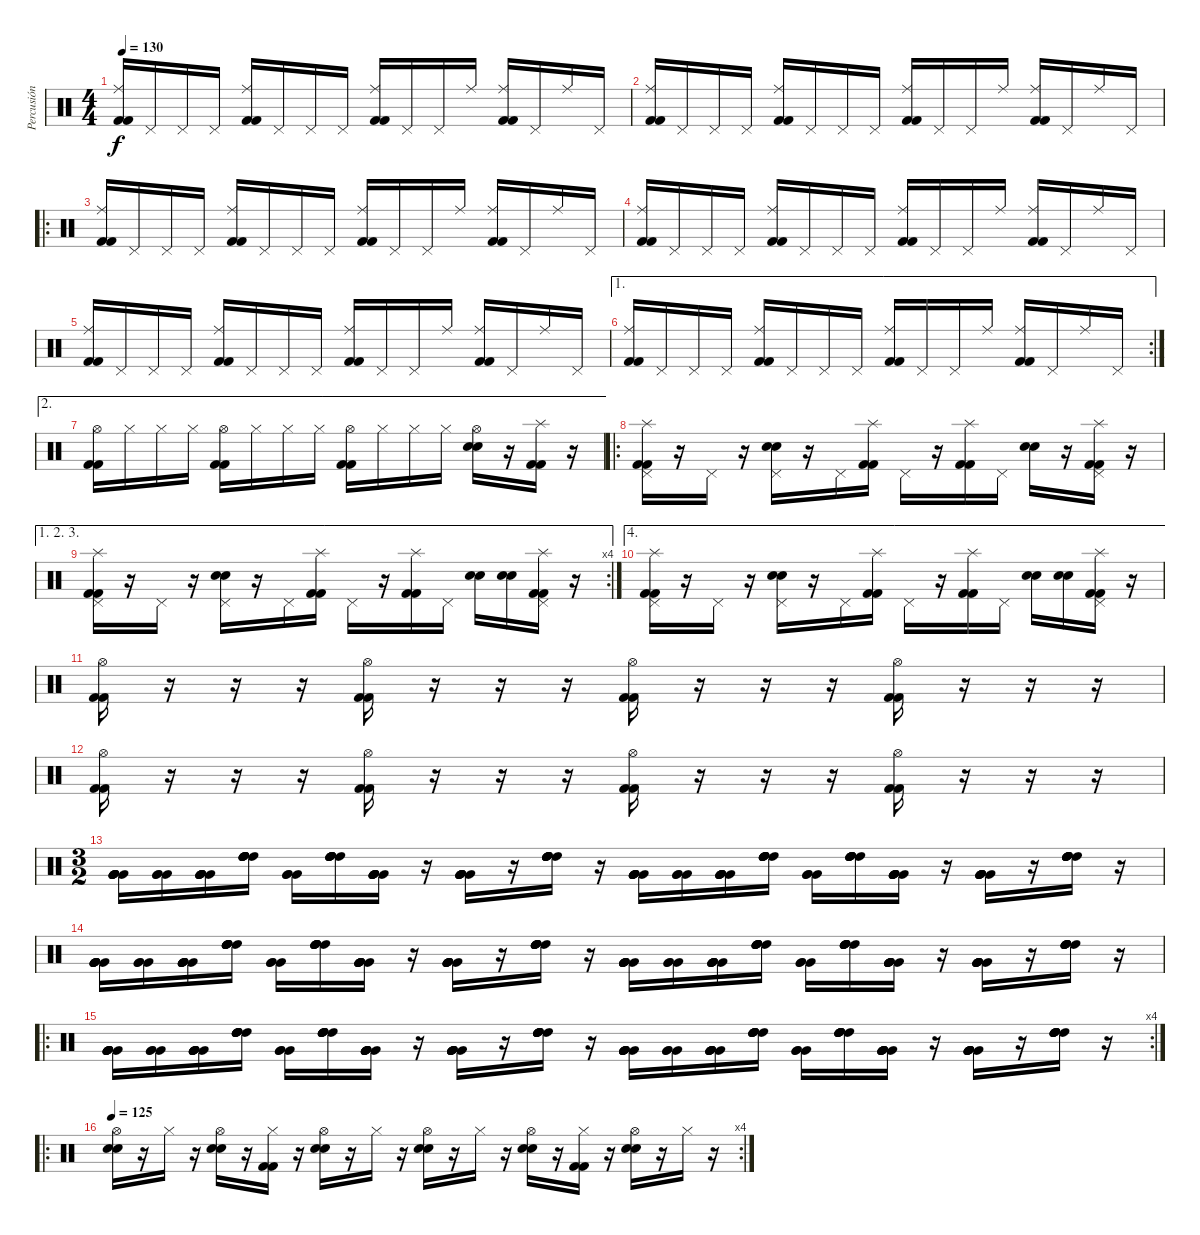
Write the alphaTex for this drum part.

\track ("Percusión" "Percusión") {instrument percussion}
\staff {score}
\articulation defaults
\ts (4 4)
\tempo 130
\clef neutral
\ks c
("Ride (middle)" "Kick (hit) 2" "Kick (hit) 2").16{dy f} "Pedal Hi-Hat (hit)".16 "Pedal Hi-Hat (hit)".16 "Pedal Hi-Hat (hit)".16 ("Ride (middle)" "Kick (hit) 2" "Kick (hit) 2").16 "Pedal Hi-Hat (hit)".16 "Pedal Hi-Hat (hit)".16 "Pedal Hi-Hat (hit)".16 ("Ride (middle)" "Kick (hit) 2" "Kick (hit) 2").16 "Pedal Hi-Hat (hit)".16 "Pedal Hi-Hat (hit)".16 "Ride (middle)".16 ("Ride (middle)" "Kick (hit) 2" "Kick (hit) 2").16 "Pedal Hi-Hat (hit)".16 "Ride (middle)".16 "Pedal Hi-Hat (hit)".16 |
("Ride (middle)" "Kick (hit) 2" "Kick (hit) 2").16 "Pedal Hi-Hat (hit)".16 "Pedal Hi-Hat (hit)".16 "Pedal Hi-Hat (hit)".16 ("Ride (middle)" "Kick (hit) 2" "Kick (hit) 2").16 "Pedal Hi-Hat (hit)".16 "Pedal Hi-Hat (hit)".16 "Pedal Hi-Hat (hit)".16 ("Ride (middle)" "Kick (hit) 2" "Kick (hit) 2").16 "Pedal Hi-Hat (hit)".16 "Pedal Hi-Hat (hit)".16 "Ride (middle)".16 ("Ride (middle)" "Kick (hit) 2" "Kick (hit) 2").16 "Pedal Hi-Hat (hit)".16 "Ride (middle)".16 "Pedal Hi-Hat (hit)".16 |
\ro
("Ride (middle)" "Kick (hit) 2" "Kick (hit) 2").16 "Pedal Hi-Hat (hit)".16 "Pedal Hi-Hat (hit)".16 "Pedal Hi-Hat (hit)".16 ("Ride (middle)" "Kick (hit) 2" "Kick (hit) 2").16 "Pedal Hi-Hat (hit)".16 "Pedal Hi-Hat (hit)".16 "Pedal Hi-Hat (hit)".16 ("Ride (middle)" "Kick (hit) 2" "Kick (hit) 2").16 "Pedal Hi-Hat (hit)".16 "Pedal Hi-Hat (hit)".16 "Ride (middle)".16 ("Ride (middle)" "Kick (hit) 2" "Kick (hit) 2").16 "Pedal Hi-Hat (hit)".16 "Ride (middle)".16 "Pedal Hi-Hat (hit)".16 |
("Ride (middle)" "Kick (hit) 2" "Kick (hit) 2").16 "Pedal Hi-Hat (hit)".16 "Pedal Hi-Hat (hit)".16 "Pedal Hi-Hat (hit)".16 ("Ride (middle)" "Kick (hit) 2" "Kick (hit) 2").16 "Pedal Hi-Hat (hit)".16 "Pedal Hi-Hat (hit)".16 "Pedal Hi-Hat (hit)".16 ("Ride (middle)" "Kick (hit) 2" "Kick (hit) 2").16 "Pedal Hi-Hat (hit)".16 "Pedal Hi-Hat (hit)".16 "Ride (middle)".16 ("Ride (middle)" "Kick (hit) 2" "Kick (hit) 2").16 "Pedal Hi-Hat (hit)".16 "Ride (middle)".16 "Pedal Hi-Hat (hit)".16 |
("Ride (middle)" "Kick (hit) 2" "Kick (hit) 2").16 "Pedal Hi-Hat (hit)".16 "Pedal Hi-Hat (hit)".16 "Pedal Hi-Hat (hit)".16 ("Ride (middle)" "Kick (hit) 2" "Kick (hit) 2").16 "Pedal Hi-Hat (hit)".16 "Pedal Hi-Hat (hit)".16 "Pedal Hi-Hat (hit)".16 ("Ride (middle)" "Kick (hit) 2" "Kick (hit) 2").16 "Pedal Hi-Hat (hit)".16 "Pedal Hi-Hat (hit)".16 "Ride (middle)".16 ("Ride (middle)" "Kick (hit) 2" "Kick (hit) 2").16 "Pedal Hi-Hat (hit)".16 "Ride (middle)".16 "Pedal Hi-Hat (hit)".16 |
\ae 1
\rc 2
("Ride (middle)" "Kick (hit) 2" "Kick (hit) 2").16 "Pedal Hi-Hat (hit)".16 "Pedal Hi-Hat (hit)".16 "Pedal Hi-Hat (hit)".16 ("Ride (middle)" "Kick (hit) 2" "Kick (hit) 2").16 "Pedal Hi-Hat (hit)".16 "Pedal Hi-Hat (hit)".16 "Pedal Hi-Hat (hit)".16 ("Ride (middle)" "Kick (hit) 2" "Kick (hit) 2").16 "Pedal Hi-Hat (hit)".16 "Pedal Hi-Hat (hit)".16 "Ride (middle)".16 ("Ride (middle)" "Kick (hit) 2" "Kick (hit) 2").16 "Pedal Hi-Hat (hit)".16 "Ride (middle)".16 "Pedal Hi-Hat (hit)".16 |
\ae 2
("Hi-Hat (open)" "Kick (hit) 2" "Kick (hit) 2").16 "Hi-Hat (closed)".16 "Hi-Hat (closed)".16 "Hi-Hat (closed)".16 ("Hi-Hat (open)" "Kick (hit) 2" "Kick (hit) 2").16 "Hi-Hat (closed)".16 "Hi-Hat (closed)".16 "Hi-Hat (closed)".16 ("Hi-Hat (open)" "Kick (hit) 2" "Kick (hit) 2").16 "Hi-Hat (closed)".16 "Hi-Hat (closed)".16 "Hi-Hat (closed)".16 ("Hi-Hat (open)" "Electric Snare (hit)" "Electric Snare (hit)").16 r.16 ("Splash (hit)" "Kick (hit) 2" "Kick (hit) 2").16 r.16 |
\ro
("Pedal Hi-Hat (hit)" "Splash (hit)" "Kick (hit) 2" "Kick (hit) 2").16 r.16 "Pedal Hi-Hat (hit)".16 r.16 ("Pedal Hi-Hat (hit)" "Electric Snare (hit)" "Electric Snare (hit)").16 r.16 "Pedal Hi-Hat (hit)".16 ("Splash (hit)" "Kick (hit) 2" "Kick (hit) 2").16 "Pedal Hi-Hat (hit)".16 r.16 ("Splash (hit)" "Kick (hit) 2" "Kick (hit) 2").16 "Pedal Hi-Hat (hit)".16 ("Electric Snare (hit)" "Electric Snare (hit)").16 r.16 ("Pedal Hi-Hat (hit)" "Splash (hit)" "Kick (hit) 2" "Kick (hit) 2").16 r.16 |
\ae (1 2 3)
\rc 4
("Pedal Hi-Hat (hit)" "Splash (hit)" "Kick (hit) 2" "Kick (hit) 2").16 r.16 "Pedal Hi-Hat (hit)".16 r.16 ("Pedal Hi-Hat (hit)" "Electric Snare (hit)" "Electric Snare (hit)").16 r.16 "Pedal Hi-Hat (hit)".16 ("Splash (hit)" "Kick (hit) 2" "Kick (hit) 2").16 "Pedal Hi-Hat (hit)".16 r.16 ("Splash (hit)" "Kick (hit) 2" "Kick (hit) 2").16 "Pedal Hi-Hat (hit)".16 ("Electric Snare (hit)" "Electric Snare (hit)").16 ("Electric Snare (hit)" "Electric Snare (hit)").16 ("Pedal Hi-Hat (hit)" "Splash (hit)" "Kick (hit) 2" "Kick (hit) 2").16 r.16 |
\ae 4
("Pedal Hi-Hat (hit)" "Splash (hit)" "Kick (hit) 2" "Kick (hit) 2").16 r.16 "Pedal Hi-Hat (hit)".16 r.16 ("Pedal Hi-Hat (hit)" "Electric Snare (hit)" "Electric Snare (hit)").16 r.16 "Pedal Hi-Hat (hit)".16 ("Splash (hit)" "Kick (hit) 2" "Kick (hit) 2").16 "Pedal Hi-Hat (hit)".16 r.16 ("Splash (hit)" "Kick (hit) 2" "Kick (hit) 2").16 "Pedal Hi-Hat (hit)".16 ("Electric Snare (hit)" "Electric Snare (hit)").16 ("Electric Snare (hit)" "Electric Snare (hit)").16 ("Pedal Hi-Hat (hit)" "Splash (hit)" "Kick (hit) 2" "Kick (hit) 2").16 r.16 |
("Hi-Hat (open)" "Kick (hit) 2" "Kick (hit) 2").16 r.16 r.16 r.16 ("Hi-Hat (open)" "Kick (hit) 2" "Kick (hit) 2").16 r.16 r.16 r.16 ("Hi-Hat (open)" "Kick (hit) 2" "Kick (hit) 2").16 r.16 r.16 r.16 ("Hi-Hat (open)" "Kick (hit) 2" "Kick (hit) 2").16 r.16 r.16 r.16 |
("Hi-Hat (open)" "Kick (hit) 2" "Kick (hit) 2").16 r.16 r.16 r.16 ("Hi-Hat (open)" "Kick (hit) 2" "Kick (hit) 2").16 r.16 r.16 r.16 ("Hi-Hat (open)" "Kick (hit) 2" "Kick (hit) 2").16 r.16 r.16 r.16 ("Hi-Hat (open)" "Kick (hit) 2" "Kick (hit) 2").16 r.16 r.16 r.16 |
\ts (3 2)
("Very Low Tom (hit)" "Very Low Tom (hit)" "Very Low Tom (hit)" "Very Low Tom (hit)" "Very Low Tom (hit)" "Very Low Tom (hit)").16 ("Very Low Tom (hit)" "Very Low Tom (hit)" "Very Low Tom (hit)").16 ("Very Low Tom (hit)" "Very Low Tom (hit)" "Very Low Tom (hit)" "Very Low Tom (hit)" "Very Low Tom (hit)" "Very Low Tom (hit)").16 ("High Tom (hit)" "High Tom (hit)" "High Tom (hit)" "High Tom (hit)" "High Tom (hit)" "High Tom (hit)").16 ("Very Low Tom (hit)" "Very Low Tom (hit)" "Very Low Tom (hit)").16 ("High Tom (hit)" "High Tom (hit)" "High Tom (hit)" "High Tom (hit)" "High Tom (hit)" "High Tom (hit)").16 ("Very Low Tom (hit)" "Very Low Tom (hit)" "Very Low Tom (hit)" "Very Low Tom (hit)" "Very Low Tom (hit)" "Very Low Tom (hit)").16 r.16 ("Very Low Tom (hit)" "Very Low Tom (hit)" "Very Low Tom (hit)" "Very Low Tom (hit)" "Very Low Tom (hit)" "Very Low Tom (hit)").16 r.16 ("High Tom (hit)" "High Tom (hit)" "High Tom (hit)" "High Tom (hit)" "High Tom (hit)" "High Tom (hit)").16 r.16 ("Very Low Tom (hit)" "Very Low Tom (hit)" "Very Low Tom (hit)" "Very Low Tom (hit)" "Very Low Tom (hit)" "Very Low Tom (hit)").16 ("Very Low Tom (hit)" "Very Low Tom (hit)" "Very Low Tom (hit)").16 ("Very Low Tom (hit)" "Very Low Tom (hit)" "Very Low Tom (hit)" "Very Low Tom (hit)" "Very Low Tom (hit)" "Very Low Tom (hit)").16 ("High Tom (hit)" "High Tom (hit)" "High Tom (hit)" "High Tom (hit)" "High Tom (hit)" "High Tom (hit)").16 ("Very Low Tom (hit)" "Very Low Tom (hit)" "Very Low Tom (hit)").16 ("High Tom (hit)" "High Tom (hit)" "High Tom (hit)" "High Tom (hit)" "High Tom (hit)" "High Tom (hit)").16 ("Very Low Tom (hit)" "Very Low Tom (hit)" "Very Low Tom (hit)" "Very Low Tom (hit)" "Very Low Tom (hit)" "Very Low Tom (hit)").16 r.16 ("Very Low Tom (hit)" "Very Low Tom (hit)" "Very Low Tom (hit)" "Very Low Tom (hit)" "Very Low Tom (hit)" "Very Low Tom (hit)").16 r.16 ("High Tom (hit)" "High Tom (hit)" "High Tom (hit)" "High Tom (hit)" "High Tom (hit)" "High Tom (hit)").16 r.16 |
("Very Low Tom (hit)" "Very Low Tom (hit)" "Very Low Tom (hit)" "Very Low Tom (hit)" "Very Low Tom (hit)" "Very Low Tom (hit)").16 ("Very Low Tom (hit)" "Very Low Tom (hit)" "Very Low Tom (hit)").16 ("Very Low Tom (hit)" "Very Low Tom (hit)" "Very Low Tom (hit)" "Very Low Tom (hit)" "Very Low Tom (hit)" "Very Low Tom (hit)").16 ("High Tom (hit)" "High Tom (hit)" "High Tom (hit)" "High Tom (hit)" "High Tom (hit)" "High Tom (hit)").16 ("Very Low Tom (hit)" "Very Low Tom (hit)" "Very Low Tom (hit)").16 ("High Tom (hit)" "High Tom (hit)" "High Tom (hit)" "High Tom (hit)" "High Tom (hit)" "High Tom (hit)").16 ("Very Low Tom (hit)" "Very Low Tom (hit)" "Very Low Tom (hit)" "Very Low Tom (hit)" "Very Low Tom (hit)" "Very Low Tom (hit)").16 r.16 ("Very Low Tom (hit)" "Very Low Tom (hit)" "Very Low Tom (hit)" "Very Low Tom (hit)" "Very Low Tom (hit)" "Very Low Tom (hit)").16 r.16 ("High Tom (hit)" "High Tom (hit)" "High Tom (hit)" "High Tom (hit)" "High Tom (hit)" "High Tom (hit)").16 r.16 ("Very Low Tom (hit)" "Very Low Tom (hit)" "Very Low Tom (hit)" "Very Low Tom (hit)" "Very Low Tom (hit)" "Very Low Tom (hit)").16 ("Very Low Tom (hit)" "Very Low Tom (hit)" "Very Low Tom (hit)").16 ("Very Low Tom (hit)" "Very Low Tom (hit)" "Very Low Tom (hit)" "Very Low Tom (hit)" "Very Low Tom (hit)" "Very Low Tom (hit)").16 ("High Tom (hit)" "High Tom (hit)" "High Tom (hit)" "High Tom (hit)" "High Tom (hit)" "High Tom (hit)").16 ("Very Low Tom (hit)" "Very Low Tom (hit)" "Very Low Tom (hit)").16 ("High Tom (hit)" "High Tom (hit)" "High Tom (hit)" "High Tom (hit)" "High Tom (hit)" "High Tom (hit)").16 ("Very Low Tom (hit)" "Very Low Tom (hit)" "Very Low Tom (hit)" "Very Low Tom (hit)" "Very Low Tom (hit)" "Very Low Tom (hit)").16 r.16 ("Very Low Tom (hit)" "Very Low Tom (hit)" "Very Low Tom (hit)" "Very Low Tom (hit)" "Very Low Tom (hit)" "Very Low Tom (hit)").16 r.16 ("High Tom (hit)" "High Tom (hit)" "High Tom (hit)" "High Tom (hit)" "High Tom (hit)" "High Tom (hit)").16 r.16 |
\ro
\rc 4
("Very Low Tom (hit)" "Very Low Tom (hit)" "Very Low Tom (hit)" "Very Low Tom (hit)" "Very Low Tom (hit)" "Very Low Tom (hit)").16 ("Very Low Tom (hit)" "Very Low Tom (hit)" "Very Low Tom (hit)").16 ("Very Low Tom (hit)" "Very Low Tom (hit)" "Very Low Tom (hit)" "Very Low Tom (hit)" "Very Low Tom (hit)" "Very Low Tom (hit)").16 ("High Tom (hit)" "High Tom (hit)" "High Tom (hit)" "High Tom (hit)" "High Tom (hit)" "High Tom (hit)").16 ("Very Low Tom (hit)" "Very Low Tom (hit)" "Very Low Tom (hit)").16 ("High Tom (hit)" "High Tom (hit)" "High Tom (hit)" "High Tom (hit)" "High Tom (hit)" "High Tom (hit)").16 ("Very Low Tom (hit)" "Very Low Tom (hit)" "Very Low Tom (hit)" "Very Low Tom (hit)" "Very Low Tom (hit)" "Very Low Tom (hit)").16 r.16 ("Very Low Tom (hit)" "Very Low Tom (hit)" "Very Low Tom (hit)" "Very Low Tom (hit)" "Very Low Tom (hit)" "Very Low Tom (hit)").16 r.16 ("High Tom (hit)" "High Tom (hit)" "High Tom (hit)" "High Tom (hit)" "High Tom (hit)" "High Tom (hit)").16 r.16 ("Very Low Tom (hit)" "Very Low Tom (hit)" "Very Low Tom (hit)" "Very Low Tom (hit)" "Very Low Tom (hit)" "Very Low Tom (hit)").16 ("Very Low Tom (hit)" "Very Low Tom (hit)" "Very Low Tom (hit)").16 ("Very Low Tom (hit)" "Very Low Tom (hit)" "Very Low Tom (hit)" "Very Low Tom (hit)" "Very Low Tom (hit)" "Very Low Tom (hit)").16 ("High Tom (hit)" "High Tom (hit)" "High Tom (hit)" "High Tom (hit)" "High Tom (hit)" "High Tom (hit)").16 ("Very Low Tom (hit)" "Very Low Tom (hit)" "Very Low Tom (hit)").16 ("High Tom (hit)" "High Tom (hit)" "High Tom (hit)" "High Tom (hit)" "High Tom (hit)" "High Tom (hit)").16 ("Very Low Tom (hit)" "Very Low Tom (hit)" "Very Low Tom (hit)" "Very Low Tom (hit)" "Very Low Tom (hit)" "Very Low Tom (hit)").16 r.16 ("Very Low Tom (hit)" "Very Low Tom (hit)" "Very Low Tom (hit)" "Very Low Tom (hit)" "Very Low Tom (hit)" "Very Low Tom (hit)").16 r.16 ("High Tom (hit)" "High Tom (hit)" "High Tom (hit)" "High Tom (hit)" "High Tom (hit)" "High Tom (hit)").16 r.16 |
\ro
\rc 4
\tempo 125
("Hi-Hat (open)" "Electric Snare (hit)" "Electric Snare (hit)").16 r.16 "Hi-Hat (closed)".16 r.16 ("Hi-Hat (open)" "Electric Snare (hit)" "Electric Snare (hit)").16 r.16 ("Hi-Hat (closed)" "Kick (hit) 2" "Kick (hit) 2").16 r.16 ("Hi-Hat (open)" "Electric Snare (hit)" "Electric Snare (hit)").16 r.16 "Hi-Hat (closed)".16 r.16 ("Hi-Hat (open)" "Electric Snare (hit)" "Electric Snare (hit)").16 r.16 "Hi-Hat (closed)".16 r.16 ("Hi-Hat (open)" "Electric Snare (hit)" "Electric Snare (hit)").16 r.16 ("Hi-Hat (closed)" "Kick (hit) 2" "Kick (hit) 2").16 r.16 ("Hi-Hat (open)" "Electric Snare (hit)" "Electric Snare (hit)").16 r.16 "Hi-Hat (closed)".16 r.16
